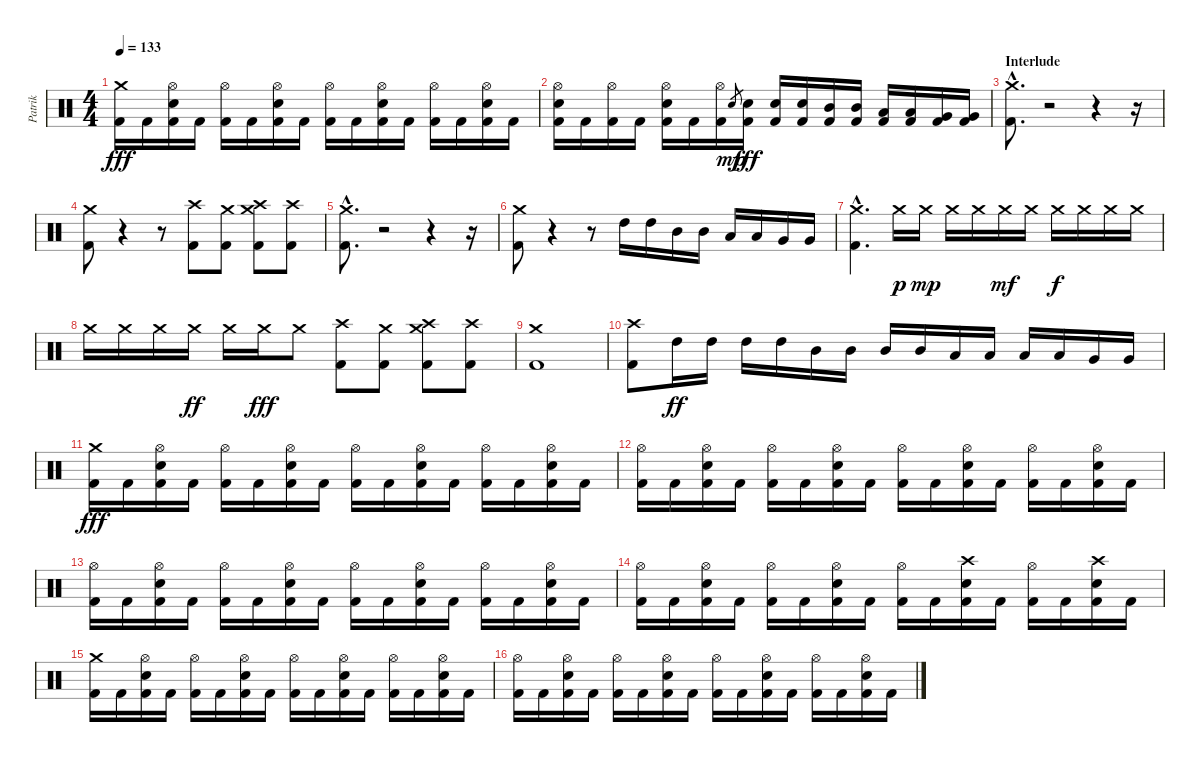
\track ("Patrik" "Patrik") {instrument percussion}
\staff {score}
\articulation defaults
\ts (4 4)
\tempo 133
\clef neutral
\ks c
("Crash medium (hit)" "Kick (hit) 2").16{dy fff} "Kick (hit) 2".16 ("Hi-Hat (open)" "Electric Snare (hit)" "Kick (hit) 2").16 "Kick (hit) 2".16 ("Hi-Hat (open)" "Kick (hit) 2").16 "Kick (hit) 2".16 ("Hi-Hat (open)" "Electric Snare (hit)" "Kick (hit) 2").16 "Kick (hit) 2".16 ("Hi-Hat (open)" "Kick (hit) 2").16 "Kick (hit) 2".16 ("Hi-Hat (open)" "Electric Snare (hit)" "Kick (hit) 2").16 "Kick (hit) 2".16 ("Hi-Hat (open)" "Kick (hit) 2").16 "Kick (hit) 2".16 ("Hi-Hat (open)" "Electric Snare (hit)" "Kick (hit) 2").16 "Kick (hit) 2".16 |
("Hi-Hat (open)" "Electric Snare (hit)" "Kick (hit) 2").16 "Kick (hit) 2".16 ("Hi-Hat (open)" "Kick (hit) 2").16 "Kick (hit) 2".16 ("Hi-Hat (open)" "Electric Snare (hit)" "Kick (hit) 2").16 "Kick (hit) 2".16 ("Hi-Hat (open)" "Kick (hit) 2").16 "Electric Snare (hit)".8{gr dy mp} ("Electric Snare (hit)" "Kick (hit) 2").16{dy fff} ("Electric Snare (hit)" "Kick (hit) 2").16 ("Electric Snare (hit)" "Kick (hit) 2").16 ("Mid Tom (hit)" "Kick (hit) 2").16 ("Mid Tom (hit)" "Kick (hit) 2").16 ("Low Tom (hit)" "Kick (hit) 2").16 ("Low Tom (hit)" "Kick (hit) 2").16 ("Very Low Tom (hit)" "Kick (hit) 2").16 ("Very Low Tom (hit)" "Kick (hit) 2").16 |
\section ("" "Interlude")
("Crash medium (hit)"{hac} "Kick (hit) 2"{hac}).8{d} r.2{volume 0} r.4 r.16 |
("Crash medium (hit)" "Kick (hit) 2").8{volume 14} r.4{volume 0} r.8 ("Crash high (hit)" "Kick (hit) 2").8{volume 14} ("Crash medium (hit)" "Kick (hit) 2").8 ("Crash medium (hit)" "Crash high (hit)" "Kick (hit) 2").8 ("Crash high (hit)" "Kick (hit) 2").8 |
("Crash medium (hit)"{hac} "Kick (hit) 2"{hac}).8{d} r.2{volume 0} r.4 r.16 |
("Crash medium (hit)" "Kick (hit) 2").8{volume 14} r.4{volume 0} r.8 "High Tom (hit)".16{volume 14} "High Tom (hit)".16 "Mid Tom (hit)".16 "Mid Tom (hit)".16 "Low Tom (hit)".16 "Low Tom (hit)".16 "Very Low Tom (hit)".16 "Very Low Tom (hit)".16 |
("Crash medium (hit)"{hac} "Kick (hit) 2"{hac}).4{d} "Crash medium (hit)".16{dy p} "Crash medium (hit)".16{dy mp} "Crash medium (hit)".16 "Crash medium (hit)".16 "Crash medium (hit)".16{dy mf} "Crash medium (hit)".16 "Crash medium (hit)".16{dy f} "Crash medium (hit)".16 "Crash medium (hit)".16 "Crash medium (hit)".16 |
"Crash medium (hit)".16 "Crash medium (hit)".16 "Crash medium (hit)".16 "Crash medium (hit)".16{dy ff} "Crash medium (hit)".16 "Crash medium (hit)".16{dy fff} "Crash medium (hit)".8 ("Crash high (hit)" "Kick (hit) 2").8 ("Crash medium (hit)" "Kick (hit) 2").8 ("Crash high (hit)" "Crash medium (hit)" "Kick (hit) 2").8 ("Crash high (hit)" "Kick (hit) 2").8 |
("Crash medium (hit)" "Kick (hit) 2").1 |
("Crash high (hit)" "Kick (hit) 2").8 "High Tom (hit)".16{dy ff} "High Tom (hit)".16 "High Tom (hit)".16 "High Tom (hit)".16 "Mid Tom (hit)".16 "Mid Tom (hit)".16 "Mid Tom (hit)".16 "Mid Tom (hit)".16 "Low Tom (hit)".16 "Low Tom (hit)".16 "Low Tom (hit)".16 "Low Tom (hit)".16 "Very Low Tom (hit)".16 "Very Low Tom (hit)".16 |
("Crash medium (hit)" "Kick (hit) 2").16{dy fff} "Kick (hit) 2".16 ("Hi-Hat (open)" "Electric Snare (hit)" "Kick (hit) 2").16 "Kick (hit) 2".16 ("Hi-Hat (open)" "Kick (hit) 2").16 "Kick (hit) 2".16 ("Hi-Hat (open)" "Electric Snare (hit)" "Kick (hit) 2").16 "Kick (hit) 2".16 ("Hi-Hat (open)" "Kick (hit) 2").16 "Kick (hit) 2".16 ("Hi-Hat (open)" "Electric Snare (hit)" "Kick (hit) 2").16 "Kick (hit) 2".16 ("Hi-Hat (open)" "Kick (hit) 2").16 "Kick (hit) 2".16 ("Hi-Hat (open)" "Electric Snare (hit)" "Kick (hit) 2").16 "Kick (hit) 2".16 |
("Hi-Hat (open)" "Kick (hit) 2").16 "Kick (hit) 2".16 ("Hi-Hat (open)" "Electric Snare (hit)" "Kick (hit) 2").16 "Kick (hit) 2".16 ("Hi-Hat (open)" "Kick (hit) 2").16 "Kick (hit) 2".16 ("Hi-Hat (open)" "Electric Snare (hit)" "Kick (hit) 2").16 "Kick (hit) 2".16 ("Hi-Hat (open)" "Kick (hit) 2").16 "Kick (hit) 2".16 ("Hi-Hat (open)" "Electric Snare (hit)" "Kick (hit) 2").16 "Kick (hit) 2".16 ("Hi-Hat (open)" "Kick (hit) 2").16 "Kick (hit) 2".16 ("Hi-Hat (open)" "Electric Snare (hit)" "Kick (hit) 2").16 "Kick (hit) 2".16 |
("Hi-Hat (open)" "Kick (hit) 2").16 "Kick (hit) 2".16 ("Hi-Hat (open)" "Electric Snare (hit)" "Kick (hit) 2").16 "Kick (hit) 2".16 ("Hi-Hat (open)" "Kick (hit) 2").16 "Kick (hit) 2".16 ("Hi-Hat (open)" "Electric Snare (hit)" "Kick (hit) 2").16 "Kick (hit) 2".16 ("Hi-Hat (open)" "Kick (hit) 2").16 "Kick (hit) 2".16 ("Hi-Hat (open)" "Electric Snare (hit)" "Kick (hit) 2").16 "Kick (hit) 2".16 ("Hi-Hat (open)" "Kick (hit) 2").16 "Kick (hit) 2".16 ("Hi-Hat (open)" "Electric Snare (hit)" "Kick (hit) 2").16 "Kick (hit) 2".16 |
("Hi-Hat (open)" "Kick (hit) 2").16 "Kick (hit) 2".16 ("Hi-Hat (open)" "Electric Snare (hit)" "Kick (hit) 2").16 "Kick (hit) 2".16 ("Hi-Hat (open)" "Kick (hit) 2").16 "Kick (hit) 2".16 ("Hi-Hat (open)" "Electric Snare (hit)" "Kick (hit) 2").16 "Kick (hit) 2".16 ("Hi-Hat (open)" "Kick (hit) 2").16 "Kick (hit) 2".16 ("Crash high (hit)" "Electric Snare (hit)" "Kick (hit) 2").16 "Kick (hit) 2".16 ("Hi-Hat (open)" "Kick (hit) 2").16 "Kick (hit) 2".16 ("Crash high (hit)" "Electric Snare (hit)" "Kick (hit) 2").16 "Kick (hit) 2".16 |
("Crash medium (hit)" "Kick (hit) 2").16 "Kick (hit) 2".16 ("Hi-Hat (open)" "Electric Snare (hit)" "Kick (hit) 2").16 "Kick (hit) 2".16 ("Hi-Hat (open)" "Kick (hit) 2").16 "Kick (hit) 2".16 ("Hi-Hat (open)" "Electric Snare (hit)" "Kick (hit) 2").16 "Kick (hit) 2".16 ("Hi-Hat (open)" "Kick (hit) 2").16 "Kick (hit) 2".16 ("Hi-Hat (open)" "Electric Snare (hit)" "Kick (hit) 2").16 "Kick (hit) 2".16 ("Hi-Hat (open)" "Kick (hit) 2").16 "Kick (hit) 2".16 ("Hi-Hat (open)" "Electric Snare (hit)" "Kick (hit) 2").16 "Kick (hit) 2".16 |
("Hi-Hat (open)" "Kick (hit) 2").16 "Kick (hit) 2".16 ("Hi-Hat (open)" "Electric Snare (hit)" "Kick (hit) 2").16 "Kick (hit) 2".16 ("Hi-Hat (open)" "Kick (hit) 2").16 "Kick (hit) 2".16 ("Hi-Hat (open)" "Electric Snare (hit)" "Kick (hit) 2").16 "Kick (hit) 2".16 ("Hi-Hat (open)" "Kick (hit) 2").16 "Kick (hit) 2".16 ("Hi-Hat (open)" "Electric Snare (hit)" "Kick (hit) 2").16 "Kick (hit) 2".16 ("Hi-Hat (open)" "Kick (hit) 2").16 "Kick (hit) 2".16 ("Hi-Hat (open)" "Electric Snare (hit)" "Kick (hit) 2").16 "Kick (hit) 2".16
